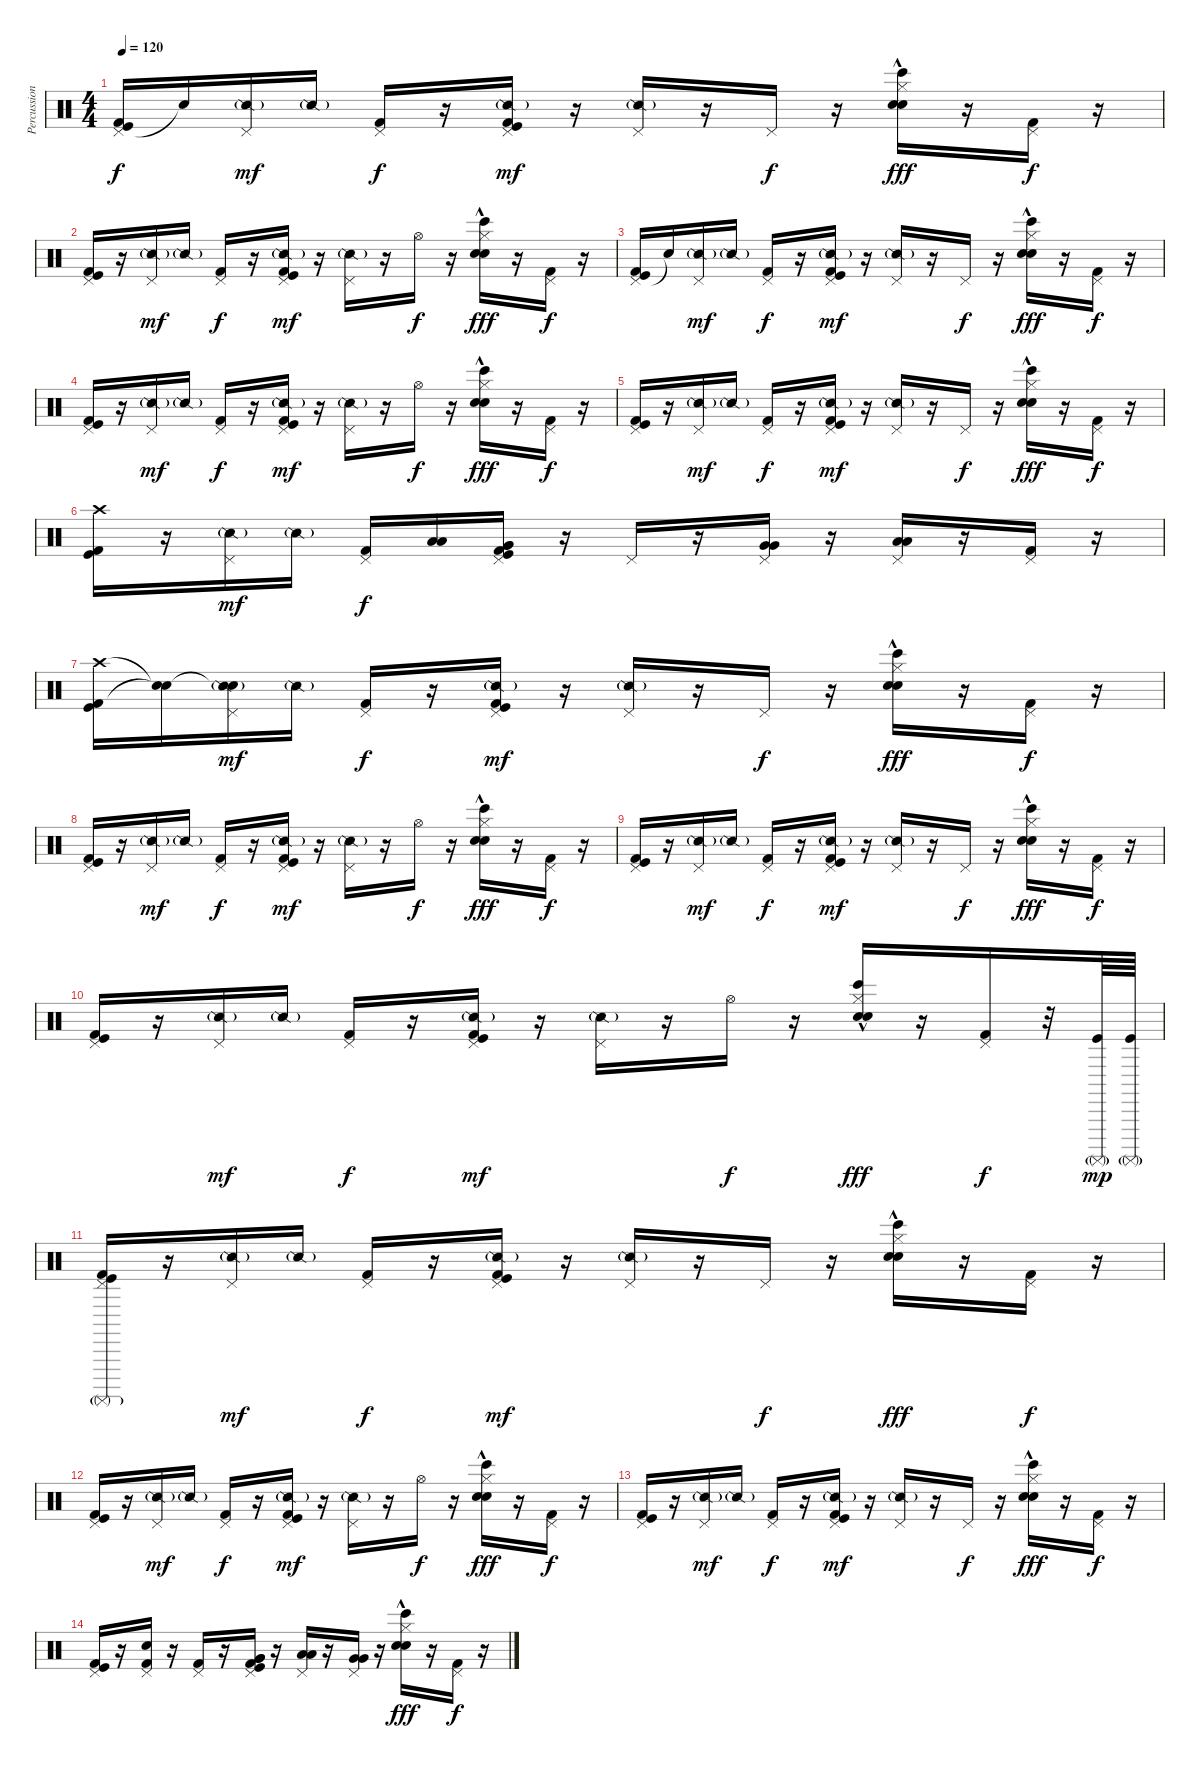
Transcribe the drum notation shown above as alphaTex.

\track ("Percussion" "Percussion") {instrument percussion}
\staff {score}
\articulation defaults
\ts (4 4)
\tempo 120
\clef neutral
\ks c
("Pedal Hi-Hat (hit)" "Kick (hit) 2" "Kick (hit)").16{dy f} "Snare (hit)"{t}.16 ("Pedal Hi-Hat (hit)" "Snare (side stick) 2"{g}).16{dy mf} "Snare (side stick) 2"{g}.16 ("Pedal Hi-Hat (hit)" "Kick (hit) 2").16{dy f} r.16 ("Pedal Hi-Hat (hit)" "Snare (side stick) 2"{g} "Kick (hit) 2" "Kick (hit)").16{dy mf} r.16 ("Pedal Hi-Hat (hit)" "Snare (side stick) 2"{g}).16 r.16 "Pedal Hi-Hat (hit)".16{dy f} r.16 ("Hi-Hat (closed)"{hac} "Hand Clap (hit)" "Bongo High (hit)" "Electric Snare (hit)").16{dy fff} r.16 ("Pedal Hi-Hat (hit)" "Kick (hit) 2").16{dy f} r.16 |
("Pedal Hi-Hat (hit)" "Kick (hit) 2" "Kick (hit)").16 r.16 ("Pedal Hi-Hat (hit)" "Snare (side stick) 2"{g}).16{dy mf} "Snare (side stick) 2"{g}.16 ("Pedal Hi-Hat (hit)" "Kick (hit) 2").16{dy f} r.16 ("Pedal Hi-Hat (hit)" "Snare (side stick) 2"{g} "Kick (hit) 2" "Kick (hit)").16{dy mf} r.16 ("Pedal Hi-Hat (hit)" "Snare (side stick) 2"{g}).16 r.16 "Hi-Hat (open)".16{dy f} r.16 ("Hi-Hat (closed)"{hac} "Hand Clap (hit)" "Bongo High (hit)" "Electric Snare (hit)").16{dy fff} r.16 ("Pedal Hi-Hat (hit)" "Kick (hit) 2").16{dy f} r.16 |
("Pedal Hi-Hat (hit)" "Kick (hit) 2" "Kick (hit)").16 "Snare (hit)"{t}.16 ("Pedal Hi-Hat (hit)" "Snare (side stick) 2"{g}).16{dy mf} "Snare (side stick) 2"{g}.16 ("Pedal Hi-Hat (hit)" "Kick (hit) 2").16{dy f} r.16 ("Pedal Hi-Hat (hit)" "Snare (side stick) 2"{g} "Kick (hit) 2" "Kick (hit)").16{dy mf} r.16 ("Pedal Hi-Hat (hit)" "Snare (side stick) 2"{g}).16 r.16 "Pedal Hi-Hat (hit)".16{dy f} r.16 ("Hi-Hat (closed)"{hac} "Hand Clap (hit)" "Bongo High (hit)" "Electric Snare (hit)").16{dy fff} r.16 ("Pedal Hi-Hat (hit)" "Kick (hit) 2").16{dy f} r.16 |
("Pedal Hi-Hat (hit)" "Kick (hit) 2" "Kick (hit)").16 r.16 ("Pedal Hi-Hat (hit)" "Snare (side stick) 2"{g}).16{dy mf} "Snare (side stick) 2"{g}.16 ("Pedal Hi-Hat (hit)" "Kick (hit) 2").16{dy f} r.16 ("Pedal Hi-Hat (hit)" "Snare (side stick) 2"{g} "Kick (hit) 2" "Kick (hit)").16{dy mf} r.16 ("Pedal Hi-Hat (hit)" "Snare (side stick) 2"{g}).16 r.16 "Hi-Hat (open)".16{dy f} r.16 ("Hi-Hat (closed)"{hac} "Hand Clap (hit)" "Bongo High (hit)" "Electric Snare (hit)").16{dy fff} r.16 ("Pedal Hi-Hat (hit)" "Kick (hit) 2").16{dy f} r.16 |
("Pedal Hi-Hat (hit)" "Kick (hit) 2" "Kick (hit)").16 r.16 ("Pedal Hi-Hat (hit)" "Snare (side stick) 2"{g}).16{dy mf} "Snare (side stick) 2"{g}.16 ("Pedal Hi-Hat (hit)" "Kick (hit) 2").16{dy f} r.16 ("Pedal Hi-Hat (hit)" "Snare (side stick) 2"{g} "Kick (hit) 2" "Kick (hit)").16{dy mf} r.16 ("Pedal Hi-Hat (hit)" "Snare (side stick) 2"{g}).16 r.16 "Pedal Hi-Hat (hit)".16{dy f} r.16 ("Hi-Hat (closed)"{hac} "Hand Clap (hit)" "Bongo High (hit)" "Electric Snare (hit)").16{dy fff} r.16 ("Pedal Hi-Hat (hit)" "Kick (hit) 2").16{dy f} r.16 |
("Crash high (hit)" "Kick (hit) 2" "Kick (hit)").16 r.16 ("Pedal Hi-Hat (hit)" "Snare (side stick) 2"{g}).16{dy mf} "Snare (side stick) 2"{g}.16 ("Pedal Hi-Hat (hit)" "Kick (hit) 2").16{dy f} ("Low Tom (hit)" "Low Tom (hit)").16 ("Pedal Hi-Hat (hit)" "Very Low Tom (hit)" "Very Low Tom (hit)" "Kick (hit) 2" "Kick (hit)").16 r.16 "Pedal Hi-Hat (hit)".16 r.16 ("Pedal Hi-Hat (hit)" "Very Low Tom (hit)" "Very Low Tom (hit)").16 r.16 ("Pedal Hi-Hat (hit)" "Low Tom (hit)" "Low Tom (hit)").16 r.16 ("Pedal Hi-Hat (hit)" "Kick (hit) 2").16 r.16 |
("Crash high (hit)" "Kick (hit) 2" "Kick (hit)").16 ("Snare (hit)"{t} "Snare (hit)"{t}).16 ("Pedal Hi-Hat (hit)" "Snare (hit)"{t} "Snare (side stick) 2"{g}).16{dy mf} "Snare (side stick) 2"{g}.16 ("Pedal Hi-Hat (hit)" "Kick (hit) 2").16{dy f} r.16 ("Pedal Hi-Hat (hit)" "Snare (side stick) 2"{g} "Kick (hit) 2" "Kick (hit)").16{dy mf} r.16 ("Pedal Hi-Hat (hit)" "Snare (side stick) 2"{g}).16 r.16 "Pedal Hi-Hat (hit)".16{dy f} r.16 ("Hi-Hat (closed)"{hac} "Hand Clap (hit)" "Bongo High (hit)" "Electric Snare (hit)").16{dy fff} r.16 ("Pedal Hi-Hat (hit)" "Kick (hit) 2").16{dy f} r.16 |
("Pedal Hi-Hat (hit)" "Kick (hit) 2" "Kick (hit)").16 r.16 ("Pedal Hi-Hat (hit)" "Snare (side stick) 2"{g}).16{dy mf} "Snare (side stick) 2"{g}.16 ("Pedal Hi-Hat (hit)" "Kick (hit) 2").16{dy f} r.16 ("Pedal Hi-Hat (hit)" "Snare (side stick) 2"{g} "Kick (hit) 2" "Kick (hit)").16{dy mf} r.16 ("Pedal Hi-Hat (hit)" "Snare (side stick) 2"{g}).16 r.16 "Hi-Hat (open)".16{dy f} r.16 ("Hi-Hat (closed)"{hac} "Hand Clap (hit)" "Bongo High (hit)" "Electric Snare (hit)").16{dy fff} r.16 ("Pedal Hi-Hat (hit)" "Kick (hit) 2").16{dy f} r.16 |
("Pedal Hi-Hat (hit)" "Kick (hit) 2" "Kick (hit)").16 r.16 ("Pedal Hi-Hat (hit)" "Snare (side stick) 2"{g}).16{dy mf} "Snare (side stick) 2"{g}.16 ("Pedal Hi-Hat (hit)" "Kick (hit) 2").16{dy f} r.16 ("Pedal Hi-Hat (hit)" "Snare (side stick) 2"{g} "Kick (hit) 2" "Kick (hit)").16{dy mf} r.16 ("Pedal Hi-Hat (hit)" "Snare (side stick) 2"{g}).16 r.16 "Pedal Hi-Hat (hit)".16{dy f} r.16 ("Hi-Hat (closed)"{hac} "Hand Clap (hit)" "Bongo High (hit)" "Electric Snare (hit)").16{dy fff} r.16 ("Pedal Hi-Hat (hit)" "Kick (hit) 2").16{dy f} r.16 |
("Pedal Hi-Hat (hit)" "Kick (hit) 2" "Kick (hit)").16 r.16 ("Pedal Hi-Hat (hit)" "Snare (side stick) 2"{g}).16{dy mf} "Snare (side stick) 2"{g}.16 ("Pedal Hi-Hat (hit)" "Kick (hit) 2").16{dy f} r.16 ("Pedal Hi-Hat (hit)" "Snare (side stick) 2"{g} "Kick (hit) 2" "Kick (hit)").16{dy mf} r.16 ("Pedal Hi-Hat (hit)" "Snare (side stick) 2"{g}).16 r.16 "Hi-Hat (open)".16{dy f} r.16 ("Hi-Hat (closed)"{hac} "Hand Clap (hit)" "Bongo High (hit)" "Electric Snare (hit)").16{dy fff} r.16 ("Pedal Hi-Hat (hit)" "Kick (hit) 2").16{dy f} r.32 ("Surdo (mute)"{g} "Kick (hit)").64{dy mp} ("Surdo (mute)"{g} "Kick (hit)").64 |
("Pedal Hi-Hat (hit)" "Surdo (mute)"{g} "Kick (hit) 2" "Kick (hit)").16 r.16 ("Pedal Hi-Hat (hit)" "Snare (side stick) 2"{g}).16{dy mf} "Snare (side stick) 2"{g}.16 ("Pedal Hi-Hat (hit)" "Kick (hit) 2").16{dy f} r.16 ("Pedal Hi-Hat (hit)" "Snare (side stick) 2"{g} "Kick (hit) 2" "Kick (hit)").16{dy mf} r.16 ("Pedal Hi-Hat (hit)" "Snare (side stick) 2"{g}).16 r.16 "Pedal Hi-Hat (hit)".16{dy f} r.16 ("Hi-Hat (closed)"{hac} "Hand Clap (hit)" "Bongo High (hit)" "Electric Snare (hit)").16{dy fff} r.16 ("Pedal Hi-Hat (hit)" "Kick (hit) 2").16{dy f} r.16 |
("Pedal Hi-Hat (hit)" "Kick (hit) 2" "Kick (hit)").16 r.16 ("Pedal Hi-Hat (hit)" "Snare (side stick) 2"{g}).16{dy mf} "Snare (side stick) 2"{g}.16 ("Pedal Hi-Hat (hit)" "Kick (hit) 2").16{dy f} r.16 ("Pedal Hi-Hat (hit)" "Snare (side stick) 2"{g} "Kick (hit) 2" "Kick (hit)").16{dy mf} r.16 ("Pedal Hi-Hat (hit)" "Snare (side stick) 2"{g}).16 r.16 "Hi-Hat (open)".16{dy f} r.16 ("Hi-Hat (closed)"{hac} "Hand Clap (hit)" "Bongo High (hit)" "Electric Snare (hit)").16{dy fff} r.16 ("Pedal Hi-Hat (hit)" "Kick (hit) 2").16{dy f} r.16 |
("Pedal Hi-Hat (hit)" "Kick (hit) 2" "Kick (hit)").16 r.16 ("Pedal Hi-Hat (hit)" "Snare (side stick) 2"{g}).16{dy mf} "Snare (side stick) 2"{g}.16 ("Pedal Hi-Hat (hit)" "Kick (hit) 2").16{dy f} r.16 ("Pedal Hi-Hat (hit)" "Snare (side stick) 2"{g} "Kick (hit) 2" "Kick (hit)").16{dy mf} r.16 ("Pedal Hi-Hat (hit)" "Snare (side stick) 2"{g}).16 r.16 "Pedal Hi-Hat (hit)".16{dy f} r.16 ("Hi-Hat (closed)"{hac} "Hand Clap (hit)" "Bongo High (hit)" "Electric Snare (hit)").16{dy fff} r.16 ("Pedal Hi-Hat (hit)" "Kick (hit) 2").16{dy f} r.16 |
("Pedal Hi-Hat (hit)" "Kick (hit) 2" "Kick (hit)").16 r.16 ("Pedal Hi-Hat (hit)" "Electric Snare (hit)" "Kick (hit) 2").16 r.16 ("Pedal Hi-Hat (hit)" "Kick (hit) 2").16 r.16 ("Pedal Hi-Hat (hit)" "Very Low Tom (hit)" "Very Low Tom (hit)" "Kick (hit) 2" "Kick (hit)").16 r.16 ("Pedal Hi-Hat (hit)" "Low Tom (hit)" "Low Tom (hit)").16 r.16 ("Pedal Hi-Hat (hit)" "Very Low Tom (hit)" "Very Low Tom (hit)").16 r.16 ("Hi-Hat (closed)"{hac} "Hand Clap (hit)" "Bongo High (hit)" "Electric Snare (hit)").16{dy fff} r.16 ("Pedal Hi-Hat (hit)" "Kick (hit) 2").16{dy f} r.16
